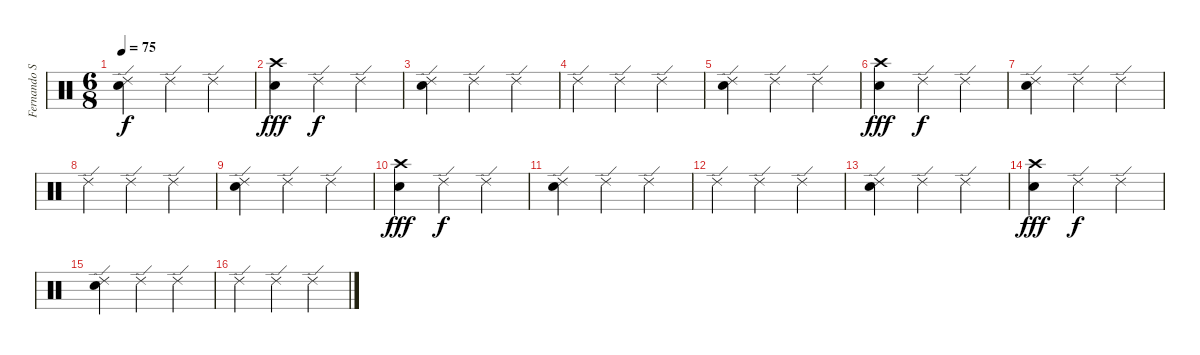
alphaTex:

\track ("Fernando Scarcella " "Fernando S") {instrument percussion}
\staff {score}
\articulation defaults
\ts (6 8)
\tempo 75
\clef neutral
\ks c
("Electric Snare (hit)" "Ride (edge) 2").4{dy f} "Ride (edge) 2".4 "Ride (edge) 2".4 |
("Snare (hit) 2" "Crash high (hit)").4{dy fff} "Ride (edge) 2".4{dy f} "Ride (edge) 2".4 |
("Electric Snare (hit)" "Ride (edge) 2").4 "Ride (edge) 2".4 "Ride (edge) 2".4 |
"Ride (edge) 2".4 "Ride (edge) 2".4 "Ride (edge) 2".4 |
("Electric Snare (hit)" "Ride (edge) 2").4 "Ride (edge) 2".4 "Ride (edge) 2".4 |
("Snare (hit) 2" "Crash high (hit)").4{dy fff} "Ride (edge) 2".4{dy f} "Ride (edge) 2".4 |
("Electric Snare (hit)" "Ride (edge) 2").4 "Ride (edge) 2".4 "Ride (edge) 2".4 |
"Ride (edge) 2".4 "Ride (edge) 2".4 "Ride (edge) 2".4 |
("Electric Snare (hit)" "Ride (edge) 2").4 "Ride (edge) 2".4 "Ride (edge) 2".4 |
("Snare (hit) 2" "Crash high (hit)").4{dy fff} "Ride (edge) 2".4{dy f} "Ride (edge) 2".4 |
("Electric Snare (hit)" "Ride (edge) 2").4 "Ride (edge) 2".4 "Ride (edge) 2".4 |
"Ride (edge) 2".4 "Ride (edge) 2".4 "Ride (edge) 2".4 |
("Electric Snare (hit)" "Ride (edge) 2").4 "Ride (edge) 2".4 "Ride (edge) 2".4 |
("Snare (hit) 2" "Crash high (hit)").4{dy fff} "Ride (edge) 2".4{dy f} "Ride (edge) 2".4 |
("Electric Snare (hit)" "Ride (edge) 2").4 "Ride (edge) 2".4 "Ride (edge) 2".4 |
"Ride (edge) 2".4 "Ride (edge) 2".4 "Ride (edge) 2".4
